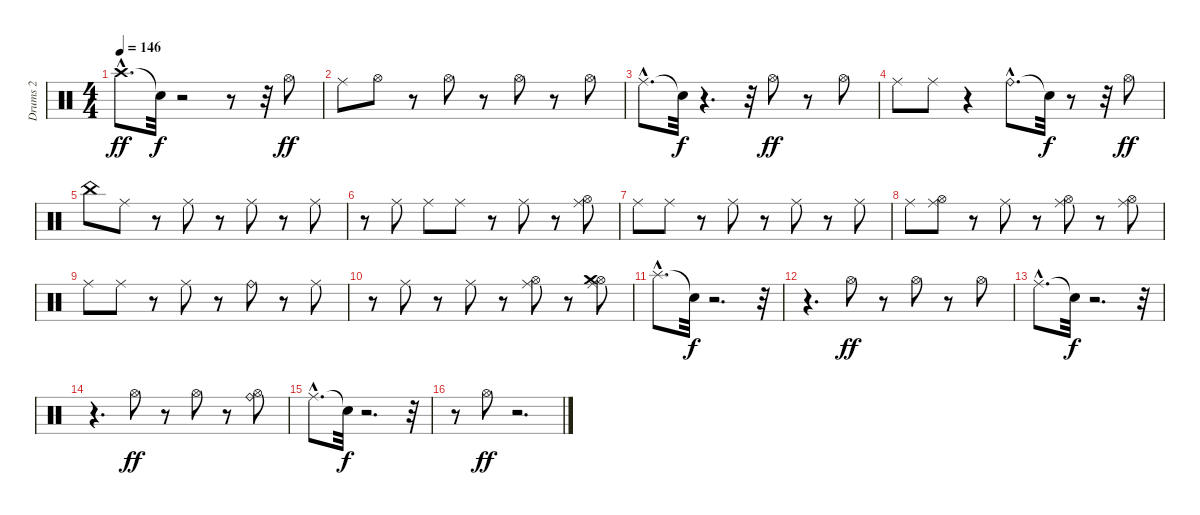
\track ("Drums 2" "Drums 2") {instrument percussion}
\staff {score}
\articulation defaults
\ts (4 4)
\tempo 146
\clef neutral
\ks c "Crash high (hit)"{hac}.8{d dy ff} "Snare (hit)"{t}.32{dy f}
r.2 r.8 r.32 "Hi-Hat (open)".8{dy ff} |
"Ride (middle)".8 "Hi-Hat (open)".8 r.8 "Hi-Hat (open)".8 r.8 "Hi-Hat (open)".8 r.8 "Hi-Hat (open)".8 |
"Ride (middle)"{hac}.8{d} "Snare (hit)"{t}.32{dy f} r.4{d} r.32 "Hi-Hat (open)".8{dy ff} r.8 "Hi-Hat (open)".8 |
"Ride (middle)".8 "Ride (middle)".8 r.4 "Ride (bell)"{hac}.8{d} "Snare (hit)"{t}.32{dy f} r.8 r.32 "Hi-Hat (open)".8{dy ff} |
"China (hit)".8 "Ride (middle)".8 r.8 "Ride (middle)".8 r.8 "Ride (middle)".8 r.8 "Ride (middle)".8 |
r.8 "Ride (middle)".8 "Ride (middle)".8 "Ride (middle)".8 r.8 "Ride (middle)".8 r.8 ("Hi-Hat (open)" "Ride (middle)").8 |
"Ride (middle)".8 "Ride (middle)".8 r.8 "Ride (middle)".8 r.8 "Ride (middle)".8 r.8 "Ride (middle)".8 |
"Ride (middle)".8 ("Hi-Hat (open)" "Ride (middle)").8 r.8 "Ride (middle)".8 r.8 ("Hi-Hat (open)" "Ride (middle)").8 r.8 ("Hi-Hat (open)" "Ride (middle)").8 |
"Ride (middle)".8 "Ride (middle)".8 r.8 "Ride (middle)".8 r.8 "Ride (bell)".8 r.8 "Ride (middle)".8 |
r.8 "Ride (middle)".8 r.8 "Ride (middle)".8 r.8 ("Hi-Hat (open)" "Ride (middle)").8 r.8 ("Hi-Hat (open)" "Ride (middle)" "Crash medium (hit)").8 |
"Splash (hit)"{hac}.8{d} "Snare (hit)"{t}.32{dy f} r.2{d} r.32 |
r.4{d} "Hi-Hat (open)".8{dy ff} r.8 "Hi-Hat (open)".8 r.8 "Hi-Hat (open)".8 |
"Ride (middle)"{hac}.8{d} "Snare (hit)"{t}.32{dy f} r.2{d} r.32 |
r.4{d} "Hi-Hat (open)".8{dy ff} r.8 "Hi-Hat (open)".8 r.8 ("Hi-Hat (open)" "Ride (bell)").8 |
"Ride (middle)"{hac}.8{d} "Snare (hit)"{t}.32{dy f} r.2{d} r.32 |
r.8 "Hi-Hat (open)".8{dy ff} r.2{d}
